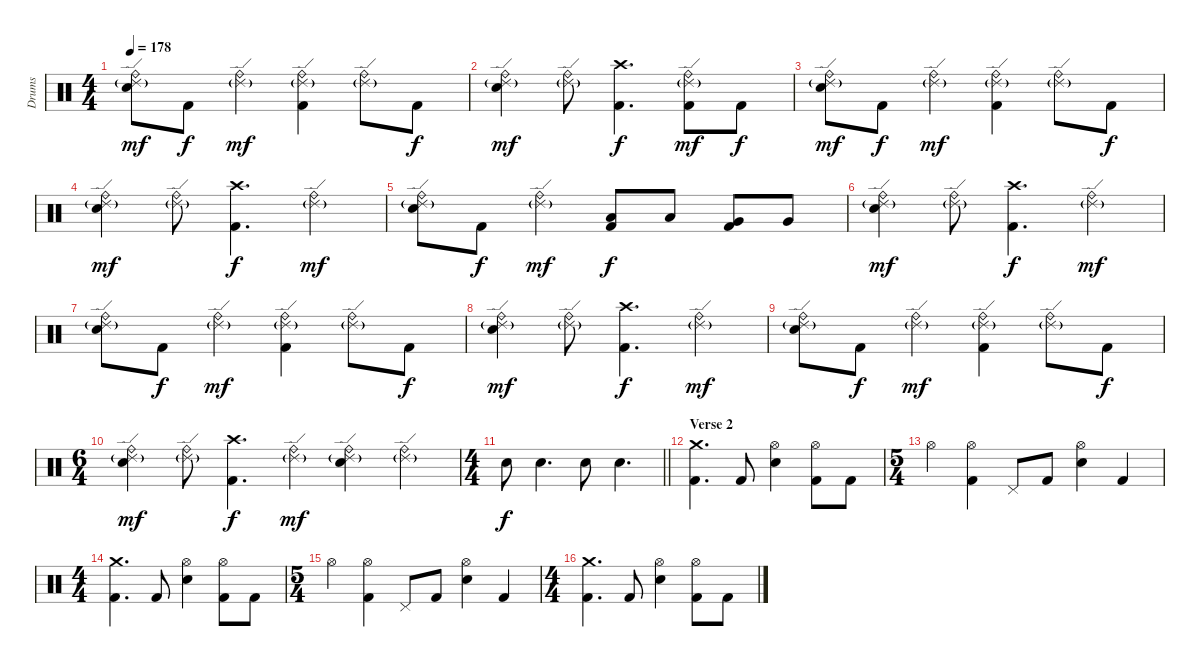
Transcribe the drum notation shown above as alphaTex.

\track ("Drums" "Drums") {instrument percussion}
\staff {score}
\articulation defaults
\ts (4 4)
\tempo 178
\clef neutral
\ks c
("Ride (bell)" "Ride (edge) 2"{g} "Electric Snare (hit)").8{dy mf} "Kick (hit) 2".8{dy f} ("Ride (bell)" "Ride (edge) 2"{g}).4{dy mf} ("Ride (bell)" "Ride (edge) 2"{g} "Kick (hit) 2").4 ("Ride (bell)" "Ride (edge) 2"{g}).8 "Kick (hit) 2".8{dy f} |
("Ride (bell)" "Ride (edge) 2"{g} "Electric Snare (hit)").4{dy mf} ("Ride (bell)" "Ride (edge) 2"{g}).8 ("Crash high (hit)" "Kick (hit) 2").4{d dy f} ("Ride (bell)" "Ride (edge) 2"{g} "Kick (hit) 2").8{dy mf} "Kick (hit) 2".8{dy f} |
("Ride (bell)" "Ride (edge) 2"{g} "Electric Snare (hit)").8{dy mf} "Kick (hit) 2".8{dy f} ("Ride (bell)" "Ride (edge) 2"{g}).4{dy mf} ("Ride (bell)" "Ride (edge) 2"{g} "Kick (hit) 2").4 ("Ride (bell)" "Ride (edge) 2"{g}).8 "Kick (hit) 2".8{dy f} |
("Ride (bell)" "Ride (edge) 2"{g} "Electric Snare (hit)").4{dy mf} ("Ride (bell)" "Ride (edge) 2"{g}).8 ("Crash high (hit)" "Kick (hit) 2").4{d dy f} ("Ride (bell)" "Ride (edge) 2"{g}).4{dy mf} |
("Ride (bell)" "Ride (edge) 2"{g} "Electric Snare (hit)").8 "Kick (hit) 2".8{dy f} ("Ride (bell)" "Ride (edge) 2"{g}).4{dy mf} ("Low Tom (hit)" "Kick (hit) 2").8{dy f} "Low Tom (hit)".8 ("Very Low Tom (hit)" "Kick (hit) 2").8 "Very Low Tom (hit)".8 |
("Ride (bell)" "Ride (edge) 2"{g} "Electric Snare (hit)").4{dy mf} ("Ride (bell)" "Ride (edge) 2"{g}).8 ("Crash high (hit)" "Kick (hit) 2").4{d dy f} ("Ride (bell)" "Ride (edge) 2"{g}).4{dy mf} |
("Ride (bell)" "Ride (edge) 2"{g} "Electric Snare (hit)").8 "Kick (hit) 2".8{dy f} ("Ride (bell)" "Ride (edge) 2"{g}).4{dy mf} ("Ride (bell)" "Ride (edge) 2"{g} "Kick (hit) 2").4 ("Ride (bell)" "Ride (edge) 2"{g}).8 "Kick (hit) 2".8{dy f} |
("Ride (bell)" "Ride (edge) 2"{g} "Electric Snare (hit)").4{dy mf} ("Ride (bell)" "Ride (edge) 2"{g}).8 ("Crash high (hit)" "Kick (hit) 2").4{d dy f} ("Ride (bell)" "Ride (edge) 2"{g}).4{dy mf} |
("Ride (bell)" "Ride (edge) 2"{g} "Electric Snare (hit)").8 "Kick (hit) 2".8{dy f} ("Ride (bell)" "Ride (edge) 2"{g}).4{dy mf} ("Ride (bell)" "Ride (edge) 2"{g} "Kick (hit) 2").4 ("Ride (bell)" "Ride (edge) 2"{g}).8 "Kick (hit) 2".8{dy f} |
\ts (6 4)
("Ride (bell)" "Ride (edge) 2"{g} "Electric Snare (hit)").4{dy mf} ("Ride (bell)" "Ride (edge) 2"{g}).8 ("Crash high (hit)" "Kick (hit) 2").4{d dy f} ("Ride (bell)" "Ride (edge) 2"{g}).4{dy mf} ("Ride (bell)" "Ride (edge) 2"{g} "Electric Snare (hit)").4 ("Ride (bell)" "Ride (edge) 2"{g}).4 |
\ts (4 4)
\barLineRight lightlight "Electric Snare (hit)".8{dy f} "Electric Snare (hit)".4{d} "Electric Snare (hit)".8 "Electric Snare (hit)".4{d}
|
\section ("" "Verse 2")
("Crash medium (hit)" "Kick (hit) 2").4{d} "Kick (hit) 2".8 ("Hi-Hat (open)" "Electric Snare (hit)").4 ("Hi-Hat (open)" "Kick (hit) 2").8 "Kick (hit) 2".8 |
\ts (5 4)
"Hi-Hat (open)".4 ("Hi-Hat (open)" "Kick (hit) 2").4 "Pedal Hi-Hat (hit)".8 "Kick (hit) 2".8 ("Hi-Hat (open)" "Electric Snare (hit)").4 "Kick (hit) 2".4 |
\ts (4 4)
("Crash medium (hit)" "Kick (hit) 2").4{d} "Kick (hit) 2".8 ("Hi-Hat (open)" "Electric Snare (hit)").4 ("Hi-Hat (open)" "Kick (hit) 2").8 "Kick (hit) 2".8 |
\ts (5 4)
"Hi-Hat (open)".4 ("Hi-Hat (open)" "Kick (hit) 2").4 "Pedal Hi-Hat (hit)".8 "Kick (hit) 2".8 ("Hi-Hat (open)" "Electric Snare (hit)").4 "Kick (hit) 2".4 |
\ts (4 4)
("Crash medium (hit)" "Kick (hit) 2").4{d} "Kick (hit) 2".8 ("Hi-Hat (open)" "Electric Snare (hit)").4 ("Hi-Hat (open)" "Kick (hit) 2").8 "Kick (hit) 2".8
